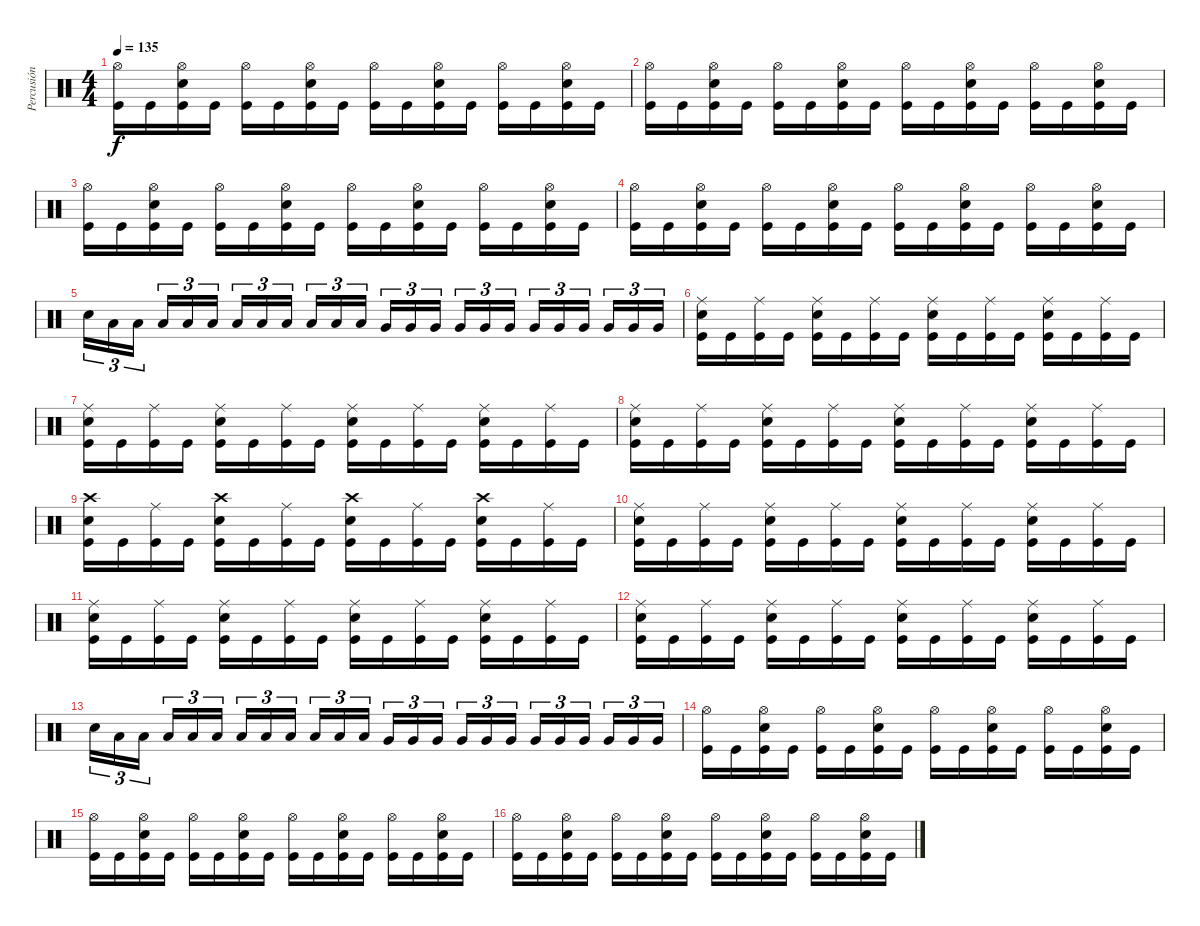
\track ("Percusión" "Percusión") {instrument percussion}
\staff {score}
\articulation defaults
\ts (4 4)
\tempo 135
\clef neutral
\ks c
("Hi-Hat (open)" "Kick (hit)").16{dy f} "Kick (hit)".16 ("Hi-Hat (open)" "Snare (hit) 2" "Kick (hit)").16 "Kick (hit)".16 ("Hi-Hat (open)" "Kick (hit)").16 "Kick (hit)".16 ("Hi-Hat (open)" "Snare (hit) 2" "Kick (hit)").16 "Kick (hit)".16 ("Hi-Hat (open)" "Kick (hit)").16 "Kick (hit)".16 ("Hi-Hat (open)" "Snare (hit) 2" "Kick (hit)").16 "Kick (hit)".16 ("Hi-Hat (open)" "Kick (hit)").16 "Kick (hit)".16 ("Hi-Hat (open)" "Snare (hit) 2" "Kick (hit)").16 "Kick (hit)".16 |
("Hi-Hat (open)" "Kick (hit)").16 "Kick (hit)".16 ("Hi-Hat (open)" "Snare (hit) 2" "Kick (hit)").16 "Kick (hit)".16 ("Hi-Hat (open)" "Kick (hit)").16 "Kick (hit)".16 ("Hi-Hat (open)" "Snare (hit) 2" "Kick (hit)").16 "Kick (hit)".16 ("Hi-Hat (open)" "Kick (hit)").16 "Kick (hit)".16 ("Hi-Hat (open)" "Snare (hit) 2" "Kick (hit)").16 "Kick (hit)".16 ("Hi-Hat (open)" "Kick (hit)").16 "Kick (hit)".16 ("Hi-Hat (open)" "Snare (hit) 2" "Kick (hit)").16 "Kick (hit)".16 |
("Hi-Hat (open)" "Kick (hit)").16 "Kick (hit)".16 ("Hi-Hat (open)" "Snare (hit) 2" "Kick (hit)").16 "Kick (hit)".16 ("Hi-Hat (open)" "Kick (hit)").16 "Kick (hit)".16 ("Hi-Hat (open)" "Snare (hit) 2" "Kick (hit)").16 "Kick (hit)".16 ("Hi-Hat (open)" "Kick (hit)").16 "Kick (hit)".16 ("Hi-Hat (open)" "Snare (hit) 2" "Kick (hit)").16 "Kick (hit)".16 ("Hi-Hat (open)" "Kick (hit)").16 "Kick (hit)".16 ("Hi-Hat (open)" "Snare (hit) 2" "Kick (hit)").16 "Kick (hit)".16 |
("Hi-Hat (open)" "Kick (hit)").16 "Kick (hit)".16 ("Hi-Hat (open)" "Snare (hit) 2" "Kick (hit)").16 "Kick (hit)".16 ("Hi-Hat (open)" "Kick (hit)").16 "Kick (hit)".16 ("Hi-Hat (open)" "Snare (hit) 2" "Kick (hit)").16 "Kick (hit)".16 ("Hi-Hat (open)" "Kick (hit)").16 "Kick (hit)".16 ("Hi-Hat (open)" "Snare (hit) 2" "Kick (hit)").16 "Kick (hit)".16 ("Hi-Hat (open)" "Kick (hit)").16 "Kick (hit)".16 ("Hi-Hat (open)" "Snare (hit) 2" "Kick (hit)").16 "Kick (hit)".16 |
"Snare (hit) 2".16{tu (3 2)} "Low Floor Tom (hit)".16{tu (3 2)} "Low Floor Tom (hit)".16{tu (3 2) beam splitsecondary} "Low Floor Tom (hit)".16{tu (3 2)} "Low Floor Tom (hit)".16{tu (3 2)} "Low Floor Tom (hit)".16{tu (3 2)} "Low Floor Tom (hit)".16{tu (3 2)} "Low Floor Tom (hit)".16{tu (3 2)} "Low Floor Tom (hit)".16{tu (3 2) beam splitsecondary} "Low Floor Tom (hit)".16{tu (3 2)} "Low Floor Tom (hit)".16{tu (3 2)} "Low Floor Tom (hit)".16{tu (3 2)} "Very Low Tom (hit)".16{tu (3 2)} "Very Low Tom (hit)".16{tu (3 2)} "Very Low Tom (hit)".16{tu (3 2) beam splitsecondary} "Very Low Tom (hit)".16{tu (3 2)} "Very Low Tom (hit)".16{tu (3 2)} "Very Low Tom (hit)".16{tu (3 2)} "Very Low Tom (hit)".16{tu (3 2)} "Very Low Tom (hit)".16{tu (3 2)} "Very Low Tom (hit)".16{tu (3 2) beam splitsecondary} "Very Low Tom (hit)".16{tu (3 2)} "Very Low Tom (hit)".16{tu (3 2)} "Very Low Tom (hit)".16{tu (3 2)} |
("Ride (middle)" "Snare (hit) 2" "Kick (hit)").16 "Kick (hit)".16 ("Ride (middle)" "Kick (hit)").16 "Kick (hit)".16 ("Ride (middle)" "Snare (hit) 2" "Kick (hit)").16 "Kick (hit)".16 ("Ride (middle)" "Kick (hit)").16 "Kick (hit)".16 ("Ride (middle)" "Snare (hit) 2" "Kick (hit)").16 "Kick (hit)".16 ("Ride (middle)" "Kick (hit)").16 "Kick (hit)".16 ("Ride (middle)" "Snare (hit) 2" "Kick (hit)").16 "Kick (hit)".16 ("Ride (middle)" "Kick (hit)").16 "Kick (hit)".16 |
("Ride (middle)" "Snare (hit) 2" "Kick (hit)").16 "Kick (hit)".16 ("Ride (middle)" "Kick (hit)").16 "Kick (hit)".16 ("Ride (middle)" "Snare (hit) 2" "Kick (hit)").16 "Kick (hit)".16 ("Ride (middle)" "Kick (hit)").16 "Kick (hit)".16 ("Ride (middle)" "Snare (hit) 2" "Kick (hit)").16 "Kick (hit)".16 ("Ride (middle)" "Kick (hit)").16 "Kick (hit)".16 ("Ride (middle)" "Snare (hit) 2" "Kick (hit)").16 "Kick (hit)".16 ("Ride (middle)" "Kick (hit)").16 "Kick (hit)".16 |
("Ride (middle)" "Snare (hit) 2" "Kick (hit)").16 "Kick (hit)".16 ("Ride (middle)" "Kick (hit)").16 "Kick (hit)".16 ("Ride (middle)" "Snare (hit) 2" "Kick (hit)").16 "Kick (hit)".16 ("Ride (middle)" "Kick (hit)").16 "Kick (hit)".16 ("Ride (middle)" "Snare (hit) 2" "Kick (hit)").16 "Kick (hit)".16 ("Ride (middle)" "Kick (hit)").16 "Kick (hit)".16 ("Ride (middle)" "Snare (hit) 2" "Kick (hit)").16 "Kick (hit)".16 ("Ride (middle)" "Kick (hit)").16 "Kick (hit)".16 |
("Crash high (hit)" "Snare (hit) 2" "Kick (hit)").16 "Kick (hit)".16 ("Ride (middle)" "Kick (hit)").16 "Kick (hit)".16 ("Crash high (hit)" "Snare (hit) 2" "Kick (hit)").16 "Kick (hit)".16 ("Ride (middle)" "Kick (hit)").16 "Kick (hit)".16 ("Crash high (hit)" "Snare (hit) 2" "Kick (hit)").16 "Kick (hit)".16 ("Ride (middle)" "Kick (hit)").16 "Kick (hit)".16 ("Crash high (hit)" "Snare (hit) 2" "Kick (hit)").16 "Kick (hit)".16 ("Ride (middle)" "Kick (hit)").16 "Kick (hit)".16 |
("Ride (middle)" "Snare (hit) 2" "Kick (hit)").16 "Kick (hit)".16 ("Ride (middle)" "Kick (hit)").16 "Kick (hit)".16 ("Ride (middle)" "Snare (hit) 2" "Kick (hit)").16 "Kick (hit)".16 ("Ride (middle)" "Kick (hit)").16 "Kick (hit)".16 ("Ride (middle)" "Snare (hit) 2" "Kick (hit)").16 "Kick (hit)".16 ("Ride (middle)" "Kick (hit)").16 "Kick (hit)".16 ("Ride (middle)" "Snare (hit) 2" "Kick (hit)").16 "Kick (hit)".16 ("Ride (middle)" "Kick (hit)").16 "Kick (hit)".16 |
("Ride (middle)" "Snare (hit) 2" "Kick (hit)").16 "Kick (hit)".16 ("Ride (middle)" "Kick (hit)").16 "Kick (hit)".16 ("Ride (middle)" "Snare (hit) 2" "Kick (hit)").16 "Kick (hit)".16 ("Ride (middle)" "Kick (hit)").16 "Kick (hit)".16 ("Ride (middle)" "Snare (hit) 2" "Kick (hit)").16 "Kick (hit)".16 ("Ride (middle)" "Kick (hit)").16 "Kick (hit)".16 ("Ride (middle)" "Snare (hit) 2" "Kick (hit)").16 "Kick (hit)".16 ("Ride (middle)" "Kick (hit)").16 "Kick (hit)".16 |
("Ride (middle)" "Snare (hit) 2" "Kick (hit)").16 "Kick (hit)".16 ("Ride (middle)" "Kick (hit)").16 "Kick (hit)".16 ("Ride (middle)" "Snare (hit) 2" "Kick (hit)").16 "Kick (hit)".16 ("Ride (middle)" "Kick (hit)").16 "Kick (hit)".16 ("Ride (middle)" "Snare (hit) 2" "Kick (hit)").16 "Kick (hit)".16 ("Ride (middle)" "Kick (hit)").16 "Kick (hit)".16 ("Ride (middle)" "Snare (hit) 2" "Kick (hit)").16 "Kick (hit)".16 ("Ride (middle)" "Kick (hit)").16 "Kick (hit)".16 |
"Snare (hit) 2".16{tu (3 2)} "Low Floor Tom (hit)".16{tu (3 2)} "Low Floor Tom (hit)".16{tu (3 2) beam splitsecondary} "Low Floor Tom (hit)".16{tu (3 2)} "Low Floor Tom (hit)".16{tu (3 2)} "Low Floor Tom (hit)".16{tu (3 2)} "Low Floor Tom (hit)".16{tu (3 2)} "Low Floor Tom (hit)".16{tu (3 2)} "Low Floor Tom (hit)".16{tu (3 2) beam splitsecondary} "Low Floor Tom (hit)".16{tu (3 2)} "Low Floor Tom (hit)".16{tu (3 2)} "Low Floor Tom (hit)".16{tu (3 2)} "Very Low Tom (hit)".16{tu (3 2)} "Very Low Tom (hit)".16{tu (3 2)} "Very Low Tom (hit)".16{tu (3 2) beam splitsecondary} "Very Low Tom (hit)".16{tu (3 2)} "Very Low Tom (hit)".16{tu (3 2)} "Very Low Tom (hit)".16{tu (3 2)} "Very Low Tom (hit)".16{tu (3 2)} "Very Low Tom (hit)".16{tu (3 2)} "Very Low Tom (hit)".16{tu (3 2) beam splitsecondary} "Very Low Tom (hit)".16{tu (3 2)} "Very Low Tom (hit)".16{tu (3 2)} "Very Low Tom (hit)".16{tu (3 2)} |
("Hi-Hat (open)" "Kick (hit)").16 "Kick (hit)".16 ("Hi-Hat (open)" "Snare (hit) 2" "Kick (hit)").16 "Kick (hit)".16 ("Hi-Hat (open)" "Kick (hit)").16 "Kick (hit)".16 ("Hi-Hat (open)" "Snare (hit) 2" "Kick (hit)").16 "Kick (hit)".16 ("Hi-Hat (open)" "Kick (hit)").16 "Kick (hit)".16 ("Hi-Hat (open)" "Snare (hit) 2" "Kick (hit)").16 "Kick (hit)".16 ("Hi-Hat (open)" "Kick (hit)").16 "Kick (hit)".16 ("Hi-Hat (open)" "Snare (hit) 2" "Kick (hit)").16 "Kick (hit)".16 |
("Hi-Hat (open)" "Kick (hit)").16 "Kick (hit)".16 ("Hi-Hat (open)" "Snare (hit) 2" "Kick (hit)").16 "Kick (hit)".16 ("Hi-Hat (open)" "Kick (hit)").16 "Kick (hit)".16 ("Hi-Hat (open)" "Snare (hit) 2" "Kick (hit)").16 "Kick (hit)".16 ("Hi-Hat (open)" "Kick (hit)").16 "Kick (hit)".16 ("Hi-Hat (open)" "Snare (hit) 2" "Kick (hit)").16 "Kick (hit)".16 ("Hi-Hat (open)" "Kick (hit)").16 "Kick (hit)".16 ("Hi-Hat (open)" "Snare (hit) 2" "Kick (hit)").16 "Kick (hit)".16 |
("Hi-Hat (open)" "Kick (hit)").16 "Kick (hit)".16 ("Hi-Hat (open)" "Snare (hit) 2" "Kick (hit)").16 "Kick (hit)".16 ("Hi-Hat (open)" "Kick (hit)").16 "Kick (hit)".16 ("Hi-Hat (open)" "Snare (hit) 2" "Kick (hit)").16 "Kick (hit)".16 ("Hi-Hat (open)" "Kick (hit)").16 "Kick (hit)".16 ("Hi-Hat (open)" "Snare (hit) 2" "Kick (hit)").16 "Kick (hit)".16 ("Hi-Hat (open)" "Kick (hit)").16 "Kick (hit)".16 ("Hi-Hat (open)" "Snare (hit) 2" "Kick (hit)").16 "Kick (hit)".16
